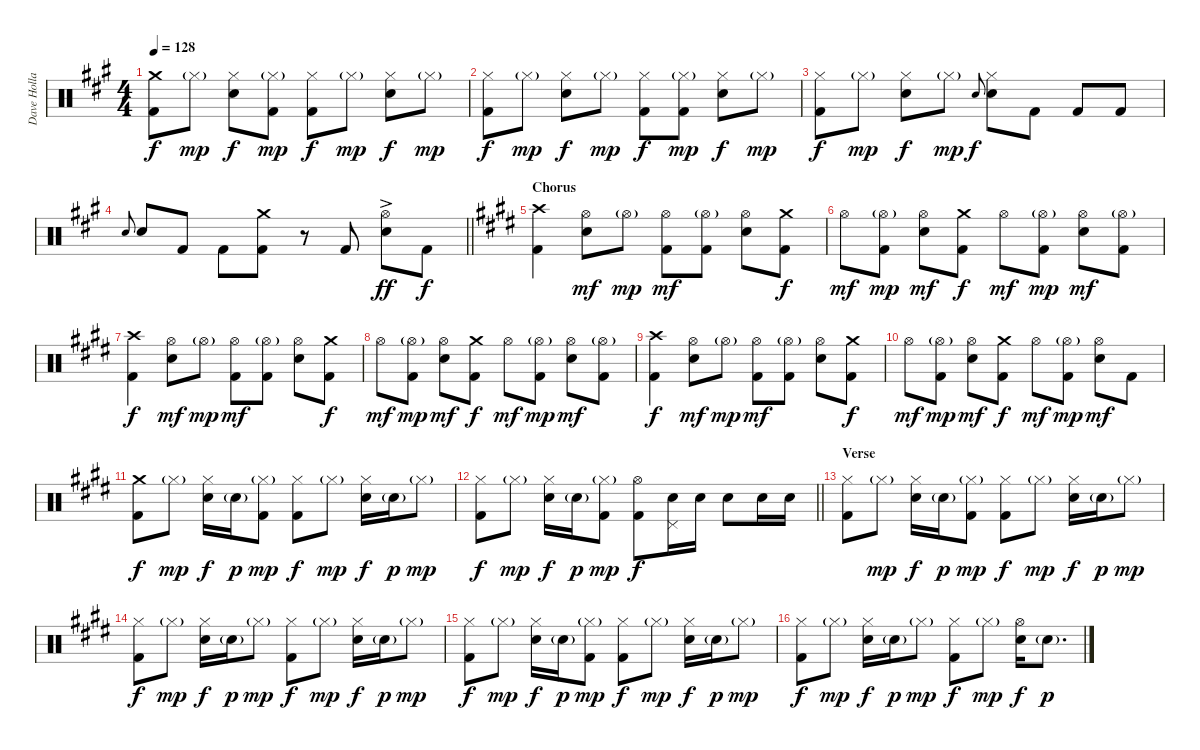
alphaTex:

\track ("Dave Holland" "Dave Holla") {instrument percussion}
\staff {score}
\articulation defaults
\ts (4 4)
\tempo 128
\clef neutral
\ks a
("Crash medium (hit)" "Kick (hit) 2").8{dy f} "Hi-Hat (closed)"{g}.8{dy mp} ("Hi-Hat (closed)" "Electric Snare (hit)").8{dy f} ("Hi-Hat (closed)"{g} "Kick (hit) 2").8{dy mp} ("Hi-Hat (closed)" "Kick (hit) 2").8{dy f} "Hi-Hat (closed)"{g}.8{dy mp} ("Hi-Hat (closed)" "Electric Snare (hit)").8{dy f} "Hi-Hat (closed)"{g}.8{dy mp} |
("Hi-Hat (closed)" "Kick (hit) 2").8{dy f} "Hi-Hat (closed)"{g}.8{dy mp} ("Hi-Hat (closed)" "Electric Snare (hit)").8{dy f} "Hi-Hat (closed)"{g}.8{dy mp} ("Hi-Hat (closed)" "Kick (hit) 2").8{dy f} ("Hi-Hat (closed)"{g} "Kick (hit) 2").8{dy mp} ("Hi-Hat (closed)" "Electric Snare (hit)").8{dy f} "Hi-Hat (closed)"{g}.8{dy mp} |
("Hi-Hat (closed)" "Kick (hit) 2").8{dy f} "Hi-Hat (closed)"{g}.8{dy mp} ("Hi-Hat (closed)" "Electric Snare (hit)").8{dy f} "Hi-Hat (closed)"{g}.8{dy mp} "Electric Snare (hit)".8{gr onbeat dy f} ("Hi-Hat (closed)" "Electric Snare (hit)").8 "Kick (hit) 2".8 "Kick (hit) 2".8 "Kick (hit) 2".8 |
\barLineRight lightlight "Electric Snare (hit)".8{gr onbeat} "Electric Snare (hit)".8 "Kick (hit) 2".8 "Kick (hit) 2".8
("Crash medium (hit)" "Kick (hit) 2").8 r.8 "Kick (hit) 2".8 ("Hi-Hat (open)" "Electric Snare (hit)"{ac}).8{dy ff} "Kick (hit) 2".8{dy f} |
\section ("" "Chorus")
\ks e
("Crash high (hit)" "Kick (hit) 2").4 ("Hi-Hat (open)" "Electric Snare (hit)").8{dy mf} "Hi-Hat (open)"{g}.8{dy mp} ("Hi-Hat (open)" "Kick (hit) 2").8{dy mf} ("Hi-Hat (open)"{g} "Kick (hit) 2").8 ("Hi-Hat (open)" "Electric Snare (hit)").8 ("Crash medium (hit)" "Kick (hit) 2").8{dy f} |
"Hi-Hat (open)".8{dy mf} ("Hi-Hat (open)"{g} "Kick (hit) 2").8{dy mp} ("Hi-Hat (open)" "Electric Snare (hit)").8{dy mf} ("Crash medium (hit)" "Kick (hit) 2").8{dy f} "Hi-Hat (open)".8{dy mf} ("Hi-Hat (open)"{g} "Kick (hit) 2").8{dy mp} ("Hi-Hat (open)" "Electric Snare (hit)").8{dy mf} ("Hi-Hat (open)"{g} "Kick (hit) 2").8 |
("Crash high (hit)" "Kick (hit) 2").4{dy f} ("Hi-Hat (open)" "Electric Snare (hit)").8{dy mf} "Hi-Hat (open)"{g}.8{dy mp} ("Hi-Hat (open)" "Kick (hit) 2").8{dy mf} ("Hi-Hat (open)"{g} "Kick (hit) 2").8 ("Hi-Hat (open)" "Electric Snare (hit)").8 ("Crash medium (hit)" "Kick (hit) 2").8{dy f} |
"Hi-Hat (open)".8{dy mf} ("Hi-Hat (open)"{g} "Kick (hit) 2").8{dy mp} ("Hi-Hat (open)" "Electric Snare (hit)").8{dy mf} ("Crash medium (hit)" "Kick (hit) 2").8{dy f} "Hi-Hat (open)".8{dy mf} ("Hi-Hat (open)"{g} "Kick (hit) 2").8{dy mp} ("Hi-Hat (open)" "Electric Snare (hit)").8{dy mf} ("Hi-Hat (open)"{g} "Kick (hit) 2").8 |
("Crash high (hit)" "Kick (hit) 2").4{dy f} ("Hi-Hat (open)" "Electric Snare (hit)").8{dy mf} "Hi-Hat (open)"{g}.8{dy mp} ("Hi-Hat (open)" "Kick (hit) 2").8{dy mf} ("Hi-Hat (open)"{g} "Kick (hit) 2").8 ("Hi-Hat (open)" "Electric Snare (hit)").8 ("Crash medium (hit)" "Kick (hit) 2").8{dy f} |
"Hi-Hat (open)".8{dy mf} ("Hi-Hat (open)"{g} "Kick (hit) 2").8{dy mp} ("Hi-Hat (open)" "Electric Snare (hit)").8{dy mf} ("Crash medium (hit)" "Kick (hit) 2").8{dy f} "Hi-Hat (open)".8{dy mf} ("Hi-Hat (open)"{g} "Kick (hit) 2").8{dy mp} ("Hi-Hat (open)" "Electric Snare (hit)").8{dy mf} "Kick (hit) 2".8 |
("Crash medium (hit)" "Kick (hit) 2").8{dy f} "Hi-Hat (closed)"{g}.8{dy mp} ("Hi-Hat (closed)" "Electric Snare (hit)").16{dy f} "Electric Snare (hit)"{g}.16{dy p} ("Hi-Hat (closed)"{g} "Kick (hit) 2").8{dy mp} ("Hi-Hat (closed)" "Kick (hit) 2").8{dy f} "Hi-Hat (closed)"{g}.8{dy mp} ("Hi-Hat (closed)" "Electric Snare (hit)").16{dy f} "Electric Snare (hit)"{g}.16{dy p} "Hi-Hat (closed)"{g}.8{dy mp} |
\barLineRight lightlight
("Hi-Hat (closed)" "Kick (hit) 2").8{dy f} "Hi-Hat (closed)"{g}.8{dy mp} ("Hi-Hat (closed)" "Electric Snare (hit)").16{dy f} "Electric Snare (hit)"{g}.16{dy p} ("Hi-Hat (closed)"{g} "Kick (hit) 2").8{dy mp} ("Hi-Hat (open)" "Kick (hit) 2").8{dy f} ("Pedal Hi-Hat (hit)" "Electric Snare (hit)").16 "Electric Snare (hit)".16 "Electric Snare (hit)".8 "Electric Snare (hit)".16 "Electric Snare (hit)".16 |
\section ("" "Verse")
("Hi-Hat (closed)" "Kick (hit) 2").8 "Hi-Hat (closed)"{g}.8{dy mp} ("Hi-Hat (closed)" "Electric Snare (hit)").16{dy f} "Electric Snare (hit)"{g}.16{dy p} ("Hi-Hat (closed)"{g} "Kick (hit) 2").8{dy mp} ("Hi-Hat (closed)" "Kick (hit) 2").8{dy f} "Hi-Hat (closed)"{g}.8{dy mp} ("Hi-Hat (closed)" "Electric Snare (hit)").16{dy f} "Electric Snare (hit)"{g}.16{dy p} "Hi-Hat (closed)"{g}.8{dy mp} |
("Hi-Hat (closed)" "Kick (hit) 2").8{dy f} "Hi-Hat (closed)"{g}.8{dy mp} ("Hi-Hat (closed)" "Electric Snare (hit)").16{dy f} "Electric Snare (hit)"{g}.16{dy p} "Hi-Hat (closed)"{g}.8{dy mp} ("Hi-Hat (closed)" "Kick (hit) 2").8{dy f} "Hi-Hat (closed)"{g}.8{dy mp} ("Hi-Hat (closed)" "Electric Snare (hit)").16{dy f} "Electric Snare (hit)"{g}.16{dy p} "Hi-Hat (closed)"{g}.8{dy mp} |
("Hi-Hat (closed)" "Kick (hit) 2").8{dy f} "Hi-Hat (closed)"{g}.8{dy mp} ("Hi-Hat (closed)" "Electric Snare (hit)").16{dy f} "Electric Snare (hit)"{g}.16{dy p} ("Hi-Hat (closed)"{g} "Kick (hit) 2").8{dy mp} ("Hi-Hat (closed)" "Kick (hit) 2").8{dy f} "Hi-Hat (closed)"{g}.8{dy mp} ("Hi-Hat (closed)" "Electric Snare (hit)").16{dy f} "Electric Snare (hit)"{g}.16{dy p} "Hi-Hat (closed)"{g}.8{dy mp} |
("Hi-Hat (closed)" "Kick (hit) 2").8{dy f} "Hi-Hat (closed)"{g}.8{dy mp} ("Hi-Hat (closed)" "Electric Snare (hit)").16{dy f} "Electric Snare (hit)"{g}.16{dy p} "Hi-Hat (closed)"{g}.8{dy mp} ("Hi-Hat (closed)" "Kick (hit) 2").8{dy f} "Hi-Hat (closed)"{g}.8{dy mp} ("Hi-Hat (open)" "Electric Snare (hit)").16{dy f} "Electric Snare (hit)"{g}.8{d dy p}
